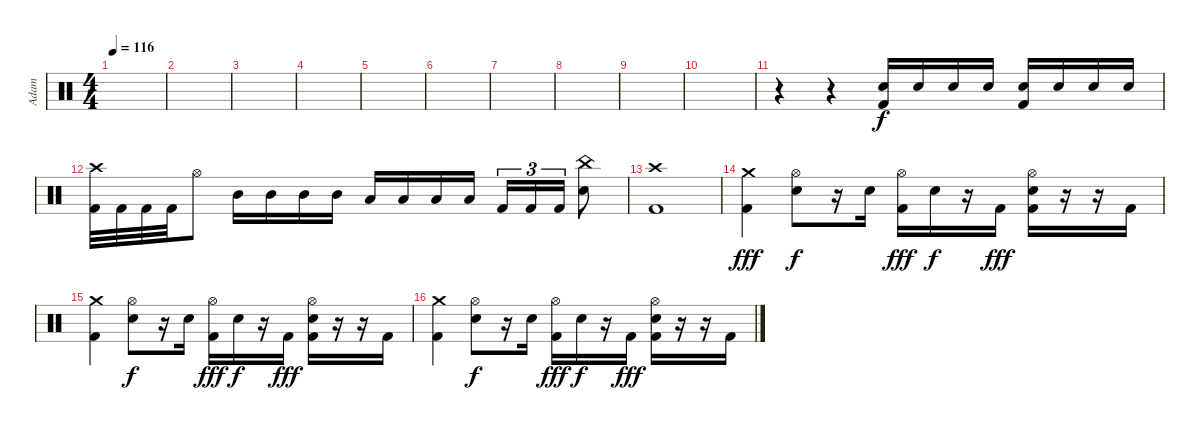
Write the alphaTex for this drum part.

\track ("Adam" "Adam") {instrument percussion}
\staff {score}
\articulation defaults
\ts (4 4)
\tempo 116
\clef neutral
\ks c
|
|
|
|
|
|
|
|
|
|
r.4 r.4 ("Electric Snare (hit)" "Kick (hit) 2").16 "Electric Snare (hit)".16 "Electric Snare (hit)".16 "Electric Snare (hit)".16 ("Electric Snare (hit)" "Kick (hit) 2").16 "Electric Snare (hit)".16 "Electric Snare (hit)".16 "Electric Snare (hit)".16 |
("Crash high (hit)" "Kick (hit) 2").32 "Kick (hit) 2".32 "Kick (hit) 2".32 "Kick (hit) 2".32 "Hi-Hat (open)".8 "Mid Tom (hit)".16 "Mid Tom (hit)".16 "Mid Tom (hit)".16 "Mid Tom (hit)".16 "Low Tom (hit)".16 "Low Tom (hit)".16 "Low Tom (hit)".16 "Low Tom (hit)".16 "Kick (hit) 2".16{tu (3 2)} "Kick (hit) 2".16{tu (3 2)} "Kick (hit) 2".16{tu (3 2)} ("China (hit)" "Electric Snare (hit)").8 |
("Crash high (hit)" "Kick (hit) 2").1 |
("Crash medium (hit)" "Kick (hit) 2").4{dy fff} ("Hi-Hat (open)" "Electric Snare (hit)").8{dy f} r.16 "Electric Snare (hit)".16 ("Hi-Hat (open)" "Kick (hit) 2").16{dy fff} "Electric Snare (hit)".16{dy f} r.16 "Kick (hit) 2".16{dy fff} ("Hi-Hat (open)" "Electric Snare (hit)" "Kick (hit) 2").16 r.16 r.16 "Kick (hit) 2".16 |
("Crash medium (hit)" "Kick (hit) 2").4 ("Hi-Hat (open)" "Electric Snare (hit)").8{dy f} r.16 "Electric Snare (hit)".16 ("Hi-Hat (open)" "Kick (hit) 2").16{dy fff} "Electric Snare (hit)".16{dy f} r.16 "Kick (hit) 2".16{dy fff} ("Hi-Hat (open)" "Electric Snare (hit)" "Kick (hit) 2").16 r.16 r.16 "Kick (hit) 2".16 |
("Crash medium (hit)" "Kick (hit) 2").4 ("Hi-Hat (open)" "Electric Snare (hit)").8{dy f} r.16 "Electric Snare (hit)".16 ("Hi-Hat (open)" "Kick (hit) 2").16{dy fff} "Electric Snare (hit)".16{dy f} r.16 "Kick (hit) 2".16{dy fff} ("Hi-Hat (open)" "Electric Snare (hit)" "Kick (hit) 2").16 r.16 r.16 "Kick (hit) 2".16
